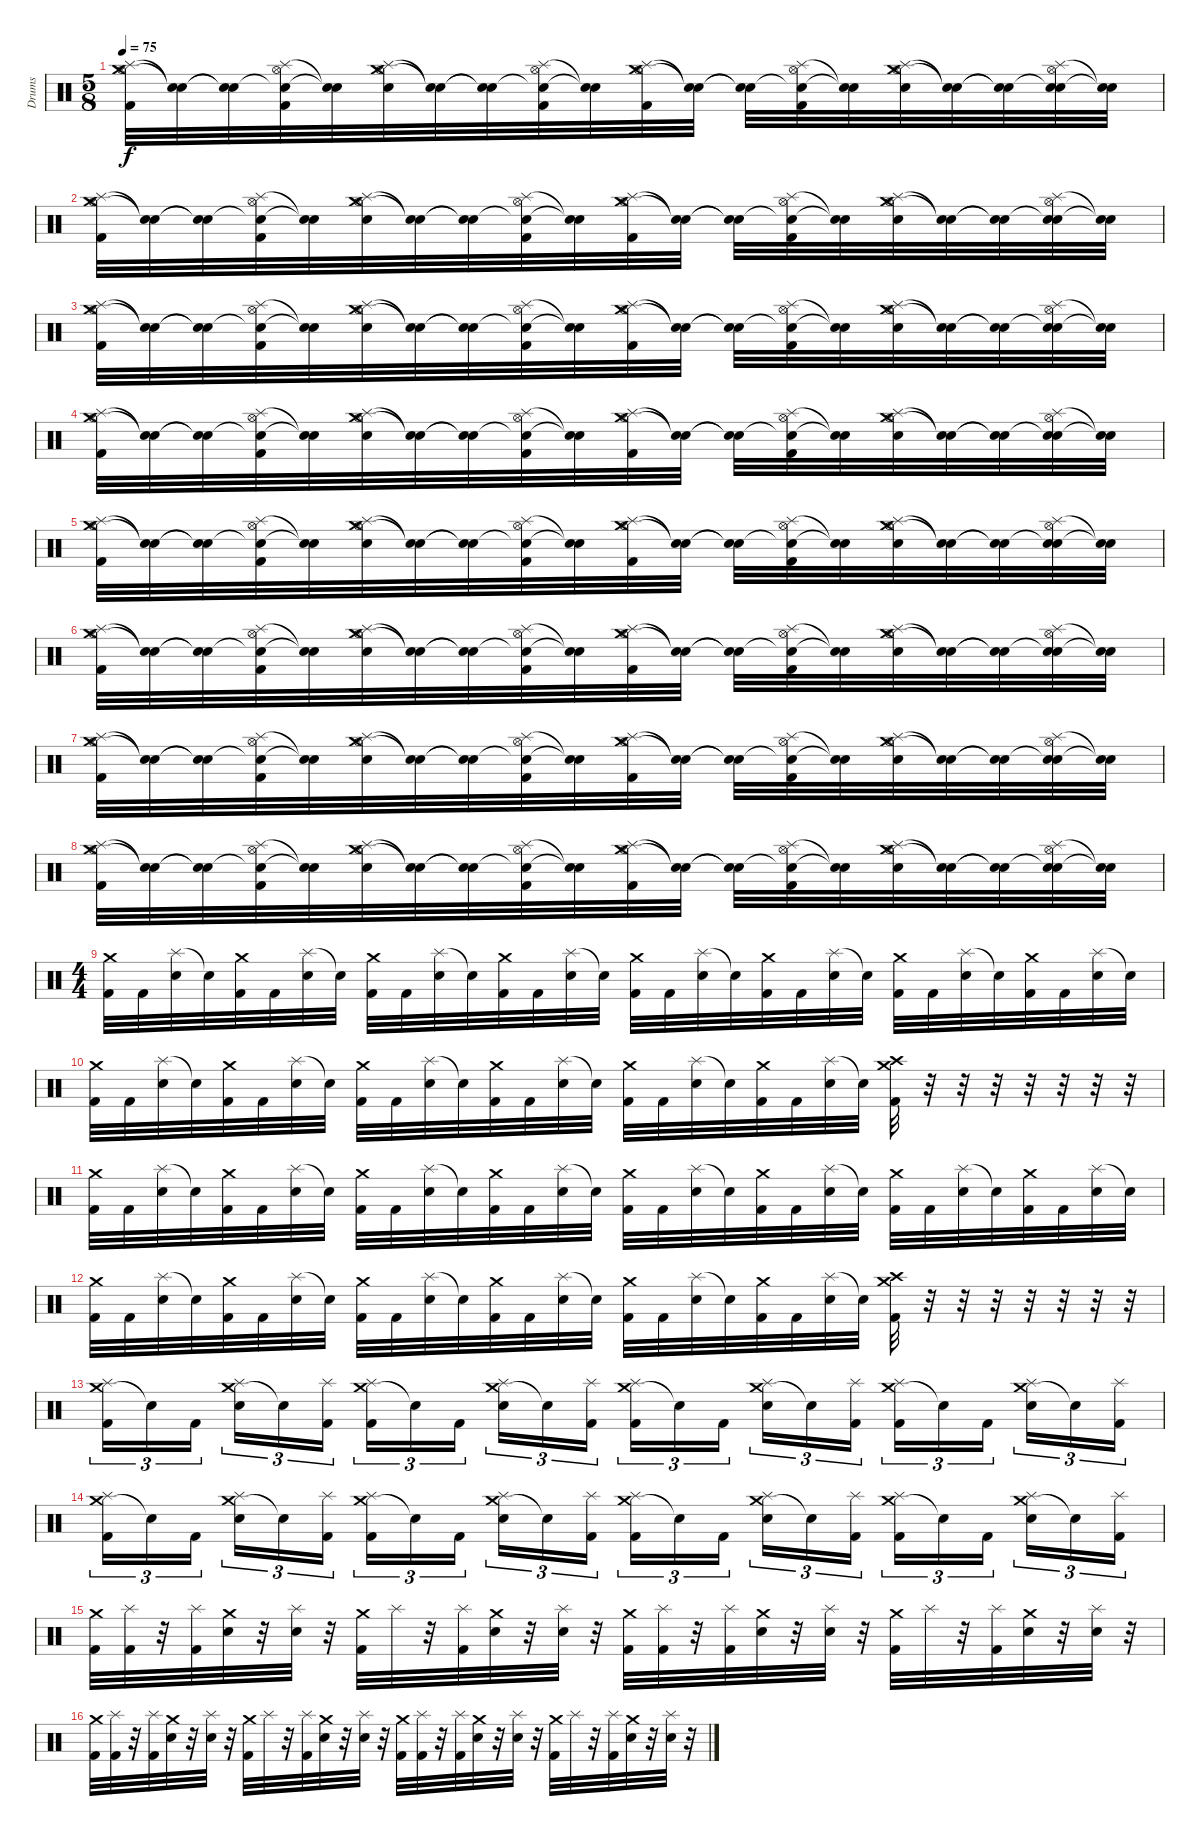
\track ("Drums" "Drums") {instrument percussion}
\staff {score}
\articulation defaults
\ts (5 8)
\tempo 75
\clef neutral
\ks c
("Splash (hit)" "Crash medium (hit)" "Hi-Hat (open)" "Kick (hit) 2").32{dy f} ("Snare (hit)"{t} "Snare (hit)"{t}).32 ("Snare (hit)"{t} "Snare (hit)"{t}).32 ("Splash (hit)" "Snare (hit)"{t} "Hi-Hat (open)" "Kick (hit) 2").32 ("Snare (hit)"{t} "Snare (hit)"{t}).32 ("Splash (hit)" "Crash medium (hit)" "Hi-Hat (open)" "Snare (hit) 2").32 ("Snare (hit)"{t} "Snare (hit)"{t}).32 ("Snare (hit)"{t} "Snare (hit)"{t}).32 ("Splash (hit)" "Snare (hit)"{t} "Hi-Hat (open)" "Kick (hit) 2").32 ("Snare (hit)"{t} "Snare (hit)"{t}).32 ("Splash (hit)" "Crash medium (hit)" "Hi-Hat (open)" "Kick (hit) 2").32 ("Snare (hit)"{t} "Snare (hit)"{t}).32 ("Snare (hit)"{t} "Snare (hit)"{t}).32 ("Splash (hit)" "Snare (hit)"{t} "Hi-Hat (open)" "Kick (hit) 2").32 ("Snare (hit)"{t} "Snare (hit)"{t}).32 ("Splash (hit)" "Crash medium (hit)" "Hi-Hat (open)" "Snare (hit) 2").32 ("Snare (hit)"{t} "Snare (hit)"{t}).32 ("Snare (hit)"{t} "Snare (hit) 2"{t}).32 ("Splash (hit)" "Snare (hit)"{t} "Hi-Hat (open)" "Snare (hit) 2").32 ("Snare (hit)"{t} "Snare (hit)"{t}).32 |
("Splash (hit)" "Crash medium (hit)" "Hi-Hat (open)" "Kick (hit) 2").32 ("Snare (hit)"{t} "Snare (hit)"{t}).32 ("Snare (hit)"{t} "Snare (hit)"{t}).32 ("Splash (hit)" "Snare (hit)"{t} "Hi-Hat (open)" "Kick (hit) 2").32 ("Snare (hit)"{t} "Snare (hit)"{t}).32 ("Splash (hit)" "Crash medium (hit)" "Hi-Hat (open)" "Snare (hit) 2").32 ("Snare (hit)"{t} "Snare (hit)"{t}).32 ("Snare (hit)"{t} "Snare (hit)"{t}).32 ("Splash (hit)" "Snare (hit)"{t} "Hi-Hat (open)" "Kick (hit) 2").32 ("Snare (hit)"{t} "Snare (hit)"{t}).32 ("Splash (hit)" "Crash medium (hit)" "Hi-Hat (open)" "Kick (hit) 2").32 ("Snare (hit)"{t} "Snare (hit)"{t}).32 ("Snare (hit)"{t} "Snare (hit)"{t}).32 ("Splash (hit)" "Snare (hit)"{t} "Hi-Hat (open)" "Kick (hit) 2").32 ("Snare (hit)"{t} "Snare (hit)"{t}).32 ("Splash (hit)" "Crash medium (hit)" "Hi-Hat (open)" "Snare (hit) 2").32 ("Snare (hit)"{t} "Snare (hit)"{t}).32 ("Snare (hit)"{t} "Snare (hit) 2"{t}).32 ("Splash (hit)" "Snare (hit)"{t} "Hi-Hat (open)" "Snare (hit) 2").32 ("Snare (hit)"{t} "Snare (hit)"{t}).32 |
("Splash (hit)" "Crash medium (hit)" "Hi-Hat (open)" "Kick (hit) 2").32 ("Snare (hit)"{t} "Snare (hit)"{t}).32 ("Snare (hit)"{t} "Snare (hit)"{t}).32 ("Splash (hit)" "Snare (hit)"{t} "Hi-Hat (open)" "Kick (hit) 2").32 ("Snare (hit)"{t} "Snare (hit)"{t}).32 ("Splash (hit)" "Crash medium (hit)" "Hi-Hat (open)" "Snare (hit) 2").32 ("Snare (hit)"{t} "Snare (hit)"{t}).32 ("Snare (hit)"{t} "Snare (hit)"{t}).32 ("Splash (hit)" "Snare (hit)"{t} "Hi-Hat (open)" "Kick (hit) 2").32 ("Snare (hit)"{t} "Snare (hit)"{t}).32 ("Splash (hit)" "Crash medium (hit)" "Hi-Hat (open)" "Kick (hit) 2").32 ("Snare (hit)"{t} "Snare (hit)"{t}).32 ("Snare (hit)"{t} "Snare (hit)"{t}).32 ("Splash (hit)" "Snare (hit)"{t} "Hi-Hat (open)" "Kick (hit) 2").32 ("Snare (hit)"{t} "Snare (hit)"{t}).32 ("Splash (hit)" "Crash medium (hit)" "Hi-Hat (open)" "Snare (hit) 2").32 ("Snare (hit)"{t} "Snare (hit)"{t}).32 ("Snare (hit)"{t} "Snare (hit) 2"{t}).32 ("Splash (hit)" "Snare (hit)"{t} "Hi-Hat (open)" "Snare (hit) 2").32 ("Snare (hit)"{t} "Snare (hit)"{t}).32 |
("Splash (hit)" "Crash medium (hit)" "Hi-Hat (open)" "Kick (hit) 2").32 ("Snare (hit)"{t} "Snare (hit)"{t}).32 ("Snare (hit)"{t} "Snare (hit)"{t}).32 ("Splash (hit)" "Snare (hit)"{t} "Hi-Hat (open)" "Kick (hit) 2").32 ("Snare (hit)"{t} "Snare (hit)"{t}).32 ("Splash (hit)" "Crash medium (hit)" "Hi-Hat (open)" "Snare (hit) 2").32 ("Snare (hit)"{t} "Snare (hit)"{t}).32 ("Snare (hit)"{t} "Snare (hit)"{t}).32 ("Splash (hit)" "Snare (hit)"{t} "Hi-Hat (open)" "Kick (hit) 2").32 ("Snare (hit)"{t} "Snare (hit)"{t}).32 ("Splash (hit)" "Crash medium (hit)" "Hi-Hat (open)" "Kick (hit) 2").32 ("Snare (hit)"{t} "Snare (hit)"{t}).32 ("Snare (hit)"{t} "Snare (hit)"{t}).32 ("Splash (hit)" "Snare (hit)"{t} "Hi-Hat (open)" "Kick (hit) 2").32 ("Snare (hit)"{t} "Snare (hit)"{t}).32 ("Splash (hit)" "Crash medium (hit)" "Hi-Hat (open)" "Snare (hit) 2").32 ("Snare (hit)"{t} "Snare (hit)"{t}).32 ("Snare (hit)"{t} "Snare (hit) 2"{t}).32 ("Splash (hit)" "Snare (hit)"{t} "Hi-Hat (open)" "Snare (hit) 2").32 ("Snare (hit)"{t} "Snare (hit)"{t}).32 |
("Splash (hit)" "Crash medium (hit)" "Hi-Hat (open)" "Kick (hit) 2").32 ("Snare (hit)"{t} "Snare (hit)"{t}).32 ("Snare (hit)"{t} "Snare (hit)"{t}).32 ("Splash (hit)" "Snare (hit)"{t} "Hi-Hat (open)" "Kick (hit) 2").32 ("Snare (hit)"{t} "Snare (hit)"{t}).32 ("Splash (hit)" "Crash medium (hit)" "Hi-Hat (open)" "Snare (hit) 2").32 ("Snare (hit)"{t} "Snare (hit)"{t}).32 ("Snare (hit)"{t} "Snare (hit)"{t}).32 ("Splash (hit)" "Snare (hit)"{t} "Hi-Hat (open)" "Kick (hit) 2").32 ("Snare (hit)"{t} "Snare (hit)"{t}).32 ("Splash (hit)" "Crash medium (hit)" "Hi-Hat (open)" "Kick (hit) 2").32 ("Snare (hit)"{t} "Snare (hit)"{t}).32 ("Snare (hit)"{t} "Snare (hit)"{t}).32 ("Splash (hit)" "Snare (hit)"{t} "Hi-Hat (open)" "Kick (hit) 2").32 ("Snare (hit)"{t} "Snare (hit)"{t}).32 ("Splash (hit)" "Crash medium (hit)" "Hi-Hat (open)" "Snare (hit) 2").32 ("Snare (hit)"{t} "Snare (hit)"{t}).32 ("Snare (hit)"{t} "Snare (hit) 2"{t}).32 ("Splash (hit)" "Snare (hit)"{t} "Hi-Hat (open)" "Snare (hit) 2").32 ("Snare (hit)"{t} "Snare (hit)"{t}).32 |
("Splash (hit)" "Crash medium (hit)" "Hi-Hat (open)" "Kick (hit) 2").32 ("Snare (hit)"{t} "Snare (hit)"{t}).32 ("Snare (hit)"{t} "Snare (hit)"{t}).32 ("Splash (hit)" "Snare (hit)"{t} "Hi-Hat (open)" "Kick (hit) 2").32 ("Snare (hit)"{t} "Snare (hit)"{t}).32 ("Splash (hit)" "Crash medium (hit)" "Hi-Hat (open)" "Snare (hit) 2").32 ("Snare (hit)"{t} "Snare (hit)"{t}).32 ("Snare (hit)"{t} "Snare (hit)"{t}).32 ("Splash (hit)" "Snare (hit)"{t} "Hi-Hat (open)" "Kick (hit) 2").32 ("Snare (hit)"{t} "Snare (hit)"{t}).32 ("Splash (hit)" "Crash medium (hit)" "Hi-Hat (open)" "Kick (hit) 2").32 ("Snare (hit)"{t} "Snare (hit)"{t}).32 ("Snare (hit)"{t} "Snare (hit)"{t}).32 ("Splash (hit)" "Snare (hit)"{t} "Hi-Hat (open)" "Kick (hit) 2").32 ("Snare (hit)"{t} "Snare (hit)"{t}).32 ("Splash (hit)" "Crash medium (hit)" "Hi-Hat (open)" "Snare (hit) 2").32 ("Snare (hit)"{t} "Snare (hit)"{t}).32 ("Snare (hit)"{t} "Snare (hit) 2"{t}).32 ("Splash (hit)" "Snare (hit)"{t} "Hi-Hat (open)" "Snare (hit) 2").32 ("Snare (hit)"{t} "Snare (hit)"{t}).32 |
("Splash (hit)" "Crash medium (hit)" "Hi-Hat (open)" "Kick (hit) 2").32 ("Snare (hit)"{t} "Snare (hit)"{t}).32 ("Snare (hit)"{t} "Snare (hit)"{t}).32 ("Splash (hit)" "Snare (hit)"{t} "Hi-Hat (open)" "Kick (hit) 2").32 ("Snare (hit)"{t} "Snare (hit)"{t}).32 ("Splash (hit)" "Crash medium (hit)" "Hi-Hat (open)" "Snare (hit) 2").32 ("Snare (hit)"{t} "Snare (hit)"{t}).32 ("Snare (hit)"{t} "Snare (hit)"{t}).32 ("Splash (hit)" "Snare (hit)"{t} "Hi-Hat (open)" "Kick (hit) 2").32 ("Snare (hit)"{t} "Snare (hit)"{t}).32 ("Splash (hit)" "Crash medium (hit)" "Hi-Hat (open)" "Kick (hit) 2").32 ("Snare (hit)"{t} "Snare (hit)"{t}).32 ("Snare (hit)"{t} "Snare (hit)"{t}).32 ("Splash (hit)" "Snare (hit)"{t} "Hi-Hat (open)" "Kick (hit) 2").32 ("Snare (hit)"{t} "Snare (hit)"{t}).32 ("Splash (hit)" "Crash medium (hit)" "Hi-Hat (open)" "Snare (hit) 2").32 ("Snare (hit)"{t} "Snare (hit)"{t}).32 ("Snare (hit)"{t} "Snare (hit) 2"{t}).32 ("Splash (hit)" "Snare (hit)"{t} "Hi-Hat (open)" "Snare (hit) 2").32 ("Snare (hit)"{t} "Snare (hit)"{t}).32 |
("Splash (hit)" "Crash medium (hit)" "Hi-Hat (open)" "Kick (hit) 2").32 ("Snare (hit)"{t} "Snare (hit)"{t}).32 ("Snare (hit)"{t} "Snare (hit)"{t}).32 ("Splash (hit)" "Snare (hit)"{t} "Hi-Hat (open)" "Kick (hit) 2").32 ("Snare (hit)"{t} "Snare (hit)"{t}).32 ("Splash (hit)" "Crash medium (hit)" "Hi-Hat (open)" "Snare (hit) 2").32 ("Snare (hit)"{t} "Snare (hit)"{t}).32 ("Snare (hit)"{t} "Snare (hit)"{t}).32 ("Splash (hit)" "Snare (hit)"{t} "Hi-Hat (open)" "Kick (hit) 2").32 ("Snare (hit)"{t} "Snare (hit)"{t}).32 ("Splash (hit)" "Crash medium (hit)" "Hi-Hat (open)" "Kick (hit) 2").32 ("Snare (hit)"{t} "Snare (hit)"{t}).32 ("Snare (hit)"{t} "Snare (hit)"{t}).32 ("Splash (hit)" "Snare (hit)"{t} "Hi-Hat (open)" "Kick (hit) 2").32 ("Snare (hit)"{t} "Snare (hit)"{t}).32 ("Splash (hit)" "Crash medium (hit)" "Hi-Hat (open)" "Snare (hit) 2").32 ("Snare (hit)"{t} "Snare (hit)"{t}).32 ("Snare (hit)"{t} "Snare (hit) 2"{t}).32 ("Splash (hit)" "Snare (hit)"{t} "Hi-Hat (open)" "Snare (hit) 2").32 ("Snare (hit)"{t} "Snare (hit)"{t}).32 |
\ts (4 4)
("Crash medium (hit)" "Kick (hit) 2").32 "Kick (hit) 2".32 ("Splash (hit)" "Snare (hit) 2").32 "Snare (hit) 2"{t}.32 ("Crash medium (hit)" "Kick (hit) 2").32 "Kick (hit) 2".32 ("Splash (hit)" "Snare (hit) 2").32 "Snare (hit) 2"{t}.32 ("Crash medium (hit)" "Kick (hit) 2").32 "Kick (hit) 2".32 ("Splash (hit)" "Snare (hit) 2").32 "Snare (hit) 2"{t}.32 ("Crash medium (hit)" "Kick (hit) 2").32 "Kick (hit) 2".32 ("Splash (hit)" "Snare (hit) 2").32 "Snare (hit) 2"{t}.32 ("Crash medium (hit)" "Kick (hit) 2").32 "Kick (hit) 2".32 ("Splash (hit)" "Snare (hit) 2").32 "Snare (hit) 2"{t}.32 ("Crash medium (hit)" "Kick (hit) 2").32 "Kick (hit) 2".32 ("Splash (hit)" "Snare (hit) 2").32 "Snare (hit) 2"{t}.32 ("Crash medium (hit)" "Kick (hit) 2").32 "Kick (hit) 2".32 ("Splash (hit)" "Snare (hit) 2").32 "Snare (hit) 2"{t}.32 ("Crash medium (hit)" "Kick (hit) 2").32 "Kick (hit) 2".32 ("Splash (hit)" "Snare (hit) 2").32 "Snare (hit) 2"{t}.32 |
("Crash medium (hit)" "Kick (hit) 2").32 "Kick (hit) 2".32 ("Splash (hit)" "Snare (hit) 2").32 "Snare (hit) 2"{t}.32 ("Crash medium (hit)" "Kick (hit) 2").32 "Kick (hit) 2".32 ("Splash (hit)" "Snare (hit) 2").32 "Snare (hit) 2"{t}.32 ("Crash medium (hit)" "Kick (hit) 2").32 "Kick (hit) 2".32 ("Splash (hit)" "Snare (hit) 2").32 "Snare (hit) 2"{t}.32 ("Crash medium (hit)" "Kick (hit) 2").32 "Kick (hit) 2".32 ("Splash (hit)" "Snare (hit) 2").32 "Snare (hit) 2"{t}.32 ("Crash medium (hit)" "Kick (hit) 2").32 "Kick (hit) 2".32 ("Splash (hit)" "Snare (hit) 2").32 "Snare (hit) 2"{t}.32 ("Crash medium (hit)" "Kick (hit) 2").32 "Kick (hit) 2".32 ("Splash (hit)" "Snare (hit) 2").32 "Snare (hit) 2"{t}.32 ("Crash medium (hit)" "Crash high (hit)" "Kick (hit) 2").32 r.32 r.32 r.32 r.32 r.32 r.32 r.32 |
("Crash medium (hit)" "Kick (hit) 2").32 "Kick (hit) 2".32 ("Splash (hit)" "Snare (hit) 2").32 "Snare (hit) 2"{t}.32 ("Crash medium (hit)" "Kick (hit) 2").32 "Kick (hit) 2".32 ("Splash (hit)" "Snare (hit) 2").32 "Snare (hit) 2"{t}.32 ("Crash medium (hit)" "Kick (hit) 2").32 "Kick (hit) 2".32 ("Splash (hit)" "Snare (hit) 2").32 "Snare (hit) 2"{t}.32 ("Crash medium (hit)" "Kick (hit) 2").32 "Kick (hit) 2".32 ("Splash (hit)" "Snare (hit) 2").32 "Snare (hit) 2"{t}.32 ("Crash medium (hit)" "Kick (hit) 2").32 "Kick (hit) 2".32 ("Splash (hit)" "Snare (hit) 2").32 "Snare (hit) 2"{t}.32 ("Crash medium (hit)" "Kick (hit) 2").32 "Kick (hit) 2".32 ("Splash (hit)" "Snare (hit) 2").32 "Snare (hit) 2"{t}.32 ("Crash medium (hit)" "Kick (hit) 2").32 "Kick (hit) 2".32 ("Splash (hit)" "Snare (hit) 2").32 "Snare (hit) 2"{t}.32 ("Crash medium (hit)" "Kick (hit) 2").32 "Kick (hit) 2".32 ("Splash (hit)" "Snare (hit) 2").32 "Snare (hit) 2"{t}.32 |
("Crash medium (hit)" "Kick (hit) 2").32 "Kick (hit) 2".32 ("Splash (hit)" "Snare (hit) 2").32 "Snare (hit) 2"{t}.32 ("Crash medium (hit)" "Kick (hit) 2").32 "Kick (hit) 2".32 ("Splash (hit)" "Snare (hit) 2").32 "Snare (hit) 2"{t}.32 ("Crash medium (hit)" "Kick (hit) 2").32 "Kick (hit) 2".32 ("Splash (hit)" "Snare (hit) 2").32 "Snare (hit) 2"{t}.32 ("Crash medium (hit)" "Kick (hit) 2").32 "Kick (hit) 2".32 ("Splash (hit)" "Snare (hit) 2").32 "Snare (hit) 2"{t}.32 ("Crash medium (hit)" "Kick (hit) 2").32 "Kick (hit) 2".32 ("Splash (hit)" "Snare (hit) 2").32 "Snare (hit) 2"{t}.32 ("Crash medium (hit)" "Kick (hit) 2").32 "Kick (hit) 2".32 ("Splash (hit)" "Snare (hit) 2").32 "Snare (hit) 2"{t}.32 ("Crash medium (hit)" "Crash high (hit)" "Kick (hit) 2").32 r.32 r.32 r.32 r.32 r.32 r.32 r.32 |
("Crash medium (hit)" "Splash (hit)" "Kick (hit) 2").16{tu (3 2)} "Snare (hit)"{t}.16{tu (3 2)} "Kick (hit) 2".16{tu (3 2) beam splitsecondary} ("Crash medium (hit)" "Splash (hit)" "Snare (hit) 2").16{tu (3 2)} "Snare (hit)"{t}.16{tu (3 2)} ("Splash (hit)" "Kick (hit) 2").16{tu (3 2)} ("Crash medium (hit)" "Splash (hit)" "Kick (hit) 2").16{tu (3 2)} "Snare (hit)"{t}.16{tu (3 2)} "Kick (hit) 2".16{tu (3 2) beam splitsecondary} ("Crash medium (hit)" "Splash (hit)" "Snare (hit) 2").16{tu (3 2)} "Snare (hit)"{t}.16{tu (3 2)} ("Splash (hit)" "Kick (hit) 2").16{tu (3 2)} ("Crash medium (hit)" "Splash (hit)" "Kick (hit) 2").16{tu (3 2)} "Snare (hit)"{t}.16{tu (3 2)} "Kick (hit) 2".16{tu (3 2) beam splitsecondary} ("Crash medium (hit)" "Splash (hit)" "Snare (hit) 2").16{tu (3 2)} "Snare (hit)"{t}.16{tu (3 2)} ("Splash (hit)" "Kick (hit) 2").16{tu (3 2)} ("Crash medium (hit)" "Splash (hit)" "Kick (hit) 2").16{tu (3 2)} "Snare (hit)"{t}.16{tu (3 2)} "Kick (hit) 2".16{tu (3 2) beam splitsecondary} ("Crash medium (hit)" "Splash (hit)" "Snare (hit) 2").16{tu (3 2)} "Snare (hit)"{t}.16{tu (3 2)} ("Splash (hit)" "Kick (hit) 2").16{tu (3 2)} |
("Crash medium (hit)" "Splash (hit)" "Kick (hit) 2").16{tu (3 2)} "Snare (hit)"{t}.16{tu (3 2)} "Kick (hit) 2".16{tu (3 2) beam splitsecondary} ("Crash medium (hit)" "Splash (hit)" "Snare (hit) 2").16{tu (3 2)} "Snare (hit)"{t}.16{tu (3 2)} ("Splash (hit)" "Kick (hit) 2").16{tu (3 2)} ("Crash medium (hit)" "Splash (hit)" "Kick (hit) 2").16{tu (3 2)} "Snare (hit)"{t}.16{tu (3 2)} "Kick (hit) 2".16{tu (3 2) beam splitsecondary} ("Crash medium (hit)" "Splash (hit)" "Snare (hit) 2").16{tu (3 2)} "Snare (hit)"{t}.16{tu (3 2)} ("Splash (hit)" "Kick (hit) 2").16{tu (3 2)} ("Crash medium (hit)" "Splash (hit)" "Kick (hit) 2").16{tu (3 2)} "Snare (hit)"{t}.16{tu (3 2)} "Kick (hit) 2".16{tu (3 2) beam splitsecondary} ("Crash medium (hit)" "Splash (hit)" "Snare (hit) 2").16{tu (3 2)} "Snare (hit)"{t}.16{tu (3 2)} ("Splash (hit)" "Kick (hit) 2").16{tu (3 2)} ("Crash medium (hit)" "Splash (hit)" "Kick (hit) 2").16{tu (3 2)} "Snare (hit)"{t}.16{tu (3 2)} "Kick (hit) 2".16{tu (3 2) beam splitsecondary} ("Crash medium (hit)" "Splash (hit)" "Snare (hit) 2").16{tu (3 2)} "Snare (hit)"{t}.16{tu (3 2)} ("Splash (hit)" "Kick (hit) 2").16{tu (3 2)} |
("Crash medium (hit)" "Kick (hit) 2").32 ("Splash (hit)" "Kick (hit) 2").32 r.32 ("Splash (hit)" "Kick (hit) 2").32 ("Crash medium (hit)" "Snare (hit) 2").32 r.32 ("Splash (hit)" "Snare (hit) 2").32 r.32 ("Crash medium (hit)" "Kick (hit) 2").32 "Splash (hit)".32 r.32 ("Splash (hit)" "Kick (hit) 2").32 ("Crash medium (hit)" "Snare (hit) 2").32 r.32 ("Splash (hit)" "Snare (hit) 2").32 r.32 ("Crash medium (hit)" "Kick (hit) 2").32 ("Splash (hit)" "Kick (hit) 2").32 r.32 ("Splash (hit)" "Kick (hit) 2").32 ("Crash medium (hit)" "Snare (hit) 2").32 r.32 ("Splash (hit)" "Snare (hit) 2").32 r.32 ("Crash medium (hit)" "Kick (hit) 2").32 "Splash (hit)".32 r.32 ("Splash (hit)" "Kick (hit) 2").32 ("Crash medium (hit)" "Snare (hit) 2").32 r.32 ("Splash (hit)" "Snare (hit) 2").32 r.32 |
("Crash medium (hit)" "Kick (hit) 2").32 ("Splash (hit)" "Kick (hit) 2").32 r.32 ("Splash (hit)" "Kick (hit) 2").32 ("Crash medium (hit)" "Snare (hit) 2").32 r.32 ("Splash (hit)" "Snare (hit) 2").32 r.32 ("Crash medium (hit)" "Kick (hit) 2").32 "Splash (hit)".32 r.32 ("Splash (hit)" "Kick (hit) 2").32 ("Crash medium (hit)" "Snare (hit) 2").32 r.32 ("Splash (hit)" "Snare (hit) 2").32 r.32 ("Crash medium (hit)" "Kick (hit) 2").32 ("Splash (hit)" "Kick (hit) 2").32 r.32 ("Splash (hit)" "Kick (hit) 2").32 ("Crash medium (hit)" "Snare (hit) 2").32 r.32 ("Splash (hit)" "Snare (hit) 2").32 r.32 ("Crash medium (hit)" "Kick (hit) 2").32 "Splash (hit)".32 r.32 ("Splash (hit)" "Kick (hit) 2").32 ("Crash medium (hit)" "Snare (hit) 2").32 r.32 ("Splash (hit)" "Snare (hit) 2").32 r.32
